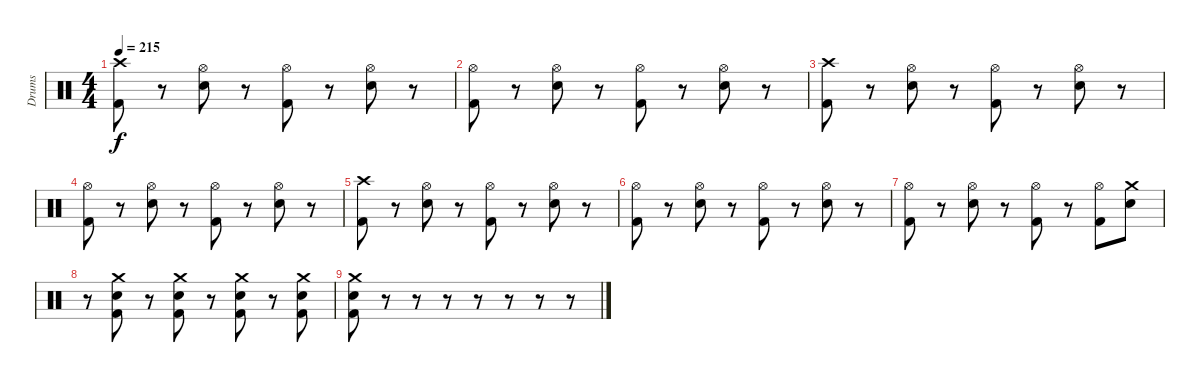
\track ("Drums" "Drums") {instrument percussion}
\staff {score}
\articulation defaults
\ts (4 4)
\tempo 215
\clef neutral
\ks c
("Crash high (hit)" "Kick (hit) 2").8{dy f} r.8 ("Hi-Hat (open)" "Snare (hit) 2").8 r.8 ("Hi-Hat (open)" "Kick (hit) 2").8 r.8 ("Hi-Hat (open)" "Snare (hit) 2").8 r.8 |
("Hi-Hat (open)" "Kick (hit) 2").8 r.8 ("Hi-Hat (open)" "Snare (hit) 2").8 r.8 ("Hi-Hat (open)" "Kick (hit) 2").8 r.8 ("Hi-Hat (open)" "Snare (hit) 2").8 r.8 |
("Crash high (hit)" "Kick (hit) 2").8 r.8 ("Hi-Hat (open)" "Snare (hit) 2").8 r.8 ("Hi-Hat (open)" "Kick (hit) 2").8 r.8 ("Hi-Hat (open)" "Snare (hit) 2").8 r.8 |
("Hi-Hat (open)" "Kick (hit) 2").8 r.8 ("Hi-Hat (open)" "Snare (hit) 2").8 r.8 ("Hi-Hat (open)" "Kick (hit) 2").8 r.8 ("Hi-Hat (open)" "Snare (hit) 2").8 r.8 |
("Crash high (hit)" "Kick (hit) 2").8 r.8 ("Hi-Hat (open)" "Snare (hit) 2").8 r.8 ("Hi-Hat (open)" "Kick (hit) 2").8 r.8 ("Hi-Hat (open)" "Snare (hit) 2").8 r.8 |
("Hi-Hat (open)" "Kick (hit) 2").8 r.8 ("Hi-Hat (open)" "Snare (hit) 2").8 r.8 ("Hi-Hat (open)" "Kick (hit) 2").8 r.8 ("Hi-Hat (open)" "Snare (hit) 2").8 r.8 |
("Hi-Hat (open)" "Kick (hit) 2").8 r.8 ("Hi-Hat (open)" "Snare (hit) 2").8 r.8 ("Hi-Hat (open)" "Kick (hit) 2").8 r.8 ("Hi-Hat (open)" "Kick (hit) 2").8 ("Crash medium (hit)" "Snare (hit) 2").8 |
r.8 ("Crash medium (hit)" "Snare (hit) 2" "Kick (hit) 2").8 r.8 ("Crash medium (hit)" "Snare (hit) 2" "Kick (hit) 2").8 r.8 ("Crash medium (hit)" "Snare (hit) 2" "Kick (hit) 2").8 r.8 ("Crash medium (hit)" "Snare (hit) 2" "Kick (hit) 2").8 |
("Crash medium (hit)" "Snare (hit) 2" "Kick (hit) 2").8 r.8 r.8 r.8 r.8 r.8 r.8 r.8
